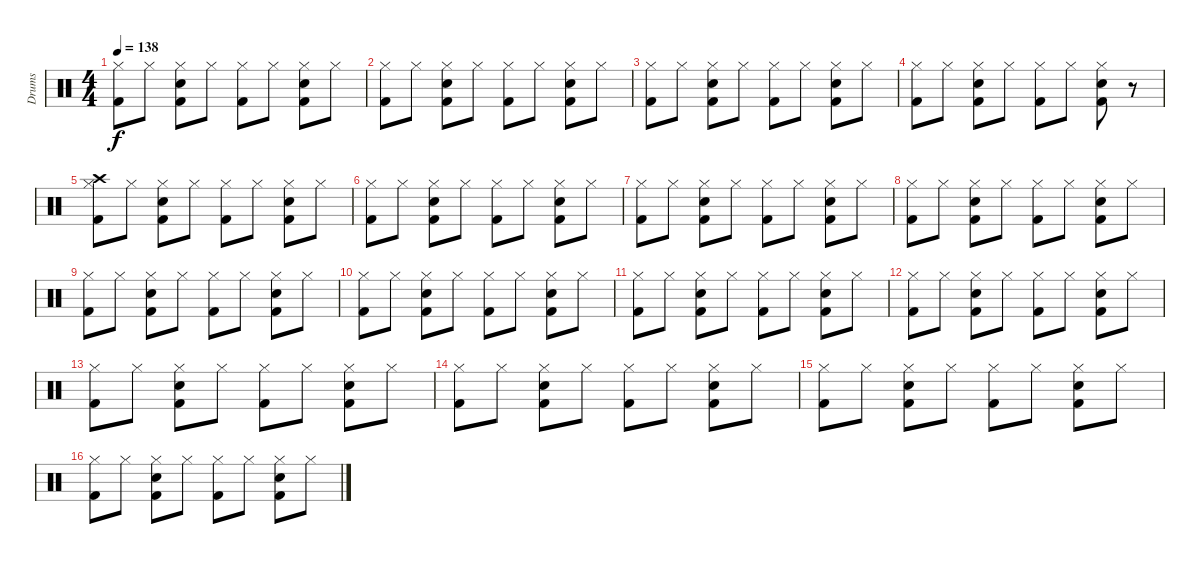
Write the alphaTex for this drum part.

\track ("Drums" "Drums") {instrument percussion}
\staff {score}
\articulation defaults
\ts (4 4)
\tempo 138
\clef neutral
\ks c
("Hi-Hat (closed)" "Kick (hit) 2").8{dy f} "Hi-Hat (closed)".8 ("Hi-Hat (closed)" "Electric Snare (hit)" "Kick (hit) 2").8 "Hi-Hat (closed)".8 ("Hi-Hat (closed)" "Kick (hit) 2").8 "Hi-Hat (closed)".8 ("Hi-Hat (closed)" "Electric Snare (hit)" "Kick (hit) 2").8 "Hi-Hat (closed)".8 |
("Hi-Hat (closed)" "Kick (hit) 2").8 "Hi-Hat (closed)".8 ("Hi-Hat (closed)" "Electric Snare (hit)" "Kick (hit) 2").8 "Hi-Hat (closed)".8 ("Hi-Hat (closed)" "Kick (hit) 2").8 "Hi-Hat (closed)".8 ("Hi-Hat (closed)" "Electric Snare (hit)" "Kick (hit) 2").8 "Hi-Hat (closed)".8 |
("Hi-Hat (closed)" "Kick (hit) 2").8 "Hi-Hat (closed)".8 ("Hi-Hat (closed)" "Electric Snare (hit)" "Kick (hit) 2").8 "Hi-Hat (closed)".8 ("Hi-Hat (closed)" "Kick (hit) 2").8 "Hi-Hat (closed)".8 ("Hi-Hat (closed)" "Electric Snare (hit)" "Kick (hit) 2").8 "Hi-Hat (closed)".8 |
("Hi-Hat (closed)" "Kick (hit) 2").8 "Hi-Hat (closed)".8 ("Hi-Hat (closed)" "Electric Snare (hit)" "Kick (hit) 2").8 "Hi-Hat (closed)".8 ("Hi-Hat (closed)" "Kick (hit) 2").8 "Hi-Hat (closed)".8 ("Hi-Hat (closed)" "Electric Snare (hit)" "Kick (hit) 2").8 r.8 |
("Crash high (hit)" "Hi-Hat (closed)" "Kick (hit) 2").8 "Hi-Hat (closed)".8 ("Hi-Hat (closed)" "Electric Snare (hit)" "Kick (hit) 2").8 "Hi-Hat (closed)".8 ("Hi-Hat (closed)" "Kick (hit) 2").8 "Hi-Hat (closed)".8 ("Hi-Hat (closed)" "Electric Snare (hit)" "Kick (hit) 2").8 "Hi-Hat (closed)".8 |
("Hi-Hat (closed)" "Kick (hit) 2").8 "Hi-Hat (closed)".8 ("Hi-Hat (closed)" "Electric Snare (hit)" "Kick (hit) 2").8 "Hi-Hat (closed)".8 ("Hi-Hat (closed)" "Kick (hit) 2").8 "Hi-Hat (closed)".8 ("Hi-Hat (closed)" "Electric Snare (hit)" "Kick (hit) 2").8 "Hi-Hat (closed)".8 |
("Hi-Hat (closed)" "Kick (hit) 2").8 "Hi-Hat (closed)".8 ("Hi-Hat (closed)" "Electric Snare (hit)" "Kick (hit) 2").8 "Hi-Hat (closed)".8 ("Hi-Hat (closed)" "Kick (hit) 2").8 "Hi-Hat (closed)".8 ("Hi-Hat (closed)" "Electric Snare (hit)" "Kick (hit) 2").8 "Hi-Hat (closed)".8 |
("Hi-Hat (closed)" "Kick (hit) 2").8 "Hi-Hat (closed)".8 ("Hi-Hat (closed)" "Electric Snare (hit)" "Kick (hit) 2").8 "Hi-Hat (closed)".8 ("Hi-Hat (closed)" "Kick (hit) 2").8 "Hi-Hat (closed)".8 ("Hi-Hat (closed)" "Electric Snare (hit)" "Kick (hit) 2").8 "Hi-Hat (closed)".8 |
("Hi-Hat (closed)" "Kick (hit) 2").8 "Hi-Hat (closed)".8 ("Hi-Hat (closed)" "Electric Snare (hit)" "Kick (hit) 2").8 "Hi-Hat (closed)".8 ("Hi-Hat (closed)" "Kick (hit) 2").8 "Hi-Hat (closed)".8 ("Hi-Hat (closed)" "Electric Snare (hit)" "Kick (hit) 2").8 "Hi-Hat (closed)".8 |
("Hi-Hat (closed)" "Kick (hit) 2").8 "Hi-Hat (closed)".8 ("Hi-Hat (closed)" "Electric Snare (hit)" "Kick (hit) 2").8 "Hi-Hat (closed)".8 ("Hi-Hat (closed)" "Kick (hit) 2").8 "Hi-Hat (closed)".8 ("Hi-Hat (closed)" "Electric Snare (hit)" "Kick (hit) 2").8 "Hi-Hat (closed)".8 |
("Hi-Hat (closed)" "Kick (hit) 2").8 "Hi-Hat (closed)".8 ("Hi-Hat (closed)" "Electric Snare (hit)" "Kick (hit) 2").8 "Hi-Hat (closed)".8 ("Hi-Hat (closed)" "Kick (hit) 2").8 "Hi-Hat (closed)".8 ("Hi-Hat (closed)" "Electric Snare (hit)" "Kick (hit) 2").8 "Hi-Hat (closed)".8 |
("Hi-Hat (closed)" "Kick (hit) 2").8 "Hi-Hat (closed)".8 ("Hi-Hat (closed)" "Electric Snare (hit)" "Kick (hit) 2").8 "Hi-Hat (closed)".8 ("Hi-Hat (closed)" "Kick (hit) 2").8 "Hi-Hat (closed)".8 ("Hi-Hat (closed)" "Electric Snare (hit)" "Kick (hit) 2").8 "Hi-Hat (closed)".8 |
("Hi-Hat (closed)" "Kick (hit) 2").8 "Hi-Hat (closed)".8 ("Hi-Hat (closed)" "Electric Snare (hit)" "Kick (hit) 2").8 "Hi-Hat (closed)".8 ("Hi-Hat (closed)" "Kick (hit) 2").8 "Hi-Hat (closed)".8 ("Hi-Hat (closed)" "Electric Snare (hit)" "Kick (hit) 2").8 "Hi-Hat (closed)".8 |
("Hi-Hat (closed)" "Kick (hit) 2").8 "Hi-Hat (closed)".8 ("Hi-Hat (closed)" "Electric Snare (hit)" "Kick (hit) 2").8 "Hi-Hat (closed)".8 ("Hi-Hat (closed)" "Kick (hit) 2").8 "Hi-Hat (closed)".8 ("Hi-Hat (closed)" "Electric Snare (hit)" "Kick (hit) 2").8 "Hi-Hat (closed)".8 |
("Hi-Hat (closed)" "Kick (hit) 2").8 "Hi-Hat (closed)".8 ("Hi-Hat (closed)" "Electric Snare (hit)" "Kick (hit) 2").8 "Hi-Hat (closed)".8 ("Hi-Hat (closed)" "Kick (hit) 2").8 "Hi-Hat (closed)".8 ("Hi-Hat (closed)" "Electric Snare (hit)" "Kick (hit) 2").8 "Hi-Hat (closed)".8 |
("Hi-Hat (closed)" "Kick (hit) 2").8 "Hi-Hat (closed)".8 ("Hi-Hat (closed)" "Electric Snare (hit)" "Kick (hit) 2").8 "Hi-Hat (closed)".8 ("Hi-Hat (closed)" "Kick (hit) 2").8 "Hi-Hat (closed)".8 ("Hi-Hat (closed)" "Electric Snare (hit)" "Kick (hit) 2").8 "Hi-Hat (closed)".8
